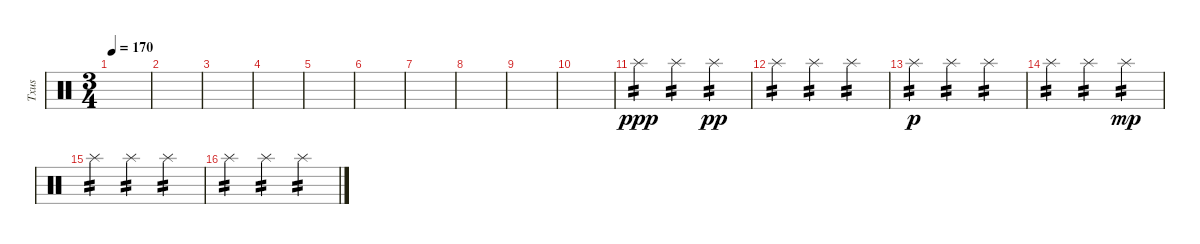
\track ("Txus" "Txus") {instrument percussion}
\staff {score}
\articulation defaults
\ts (3 4)
\tempo 170
\clef neutral
\ks c
|
|
|
|
|
|
|
|
|
|
"Splash (hit)".4{tp 2 dy ppp} "Splash (hit)".4{tp 2} "Splash (hit)".4{tp 2 dy pp} |
"Splash (hit)".4{tp 2} "Splash (hit)".4{tp 2} "Splash (hit)".4{tp 2} |
"Splash (hit)".4{tp 2 dy p} "Splash (hit)".4{tp 2} "Splash (hit)".4{tp 2} |
"Splash (hit)".4{tp 2} "Splash (hit)".4{tp 2} "Splash (hit)".4{tp 2 dy mp} |
"Splash (hit)".4{tp 2} "Splash (hit)".4{tp 2} "Splash (hit)".4{tp 2} |
"Splash (hit)".4{tp 2} "Splash (hit)".4{tp 2} "Splash (hit)".4{tp 2}
